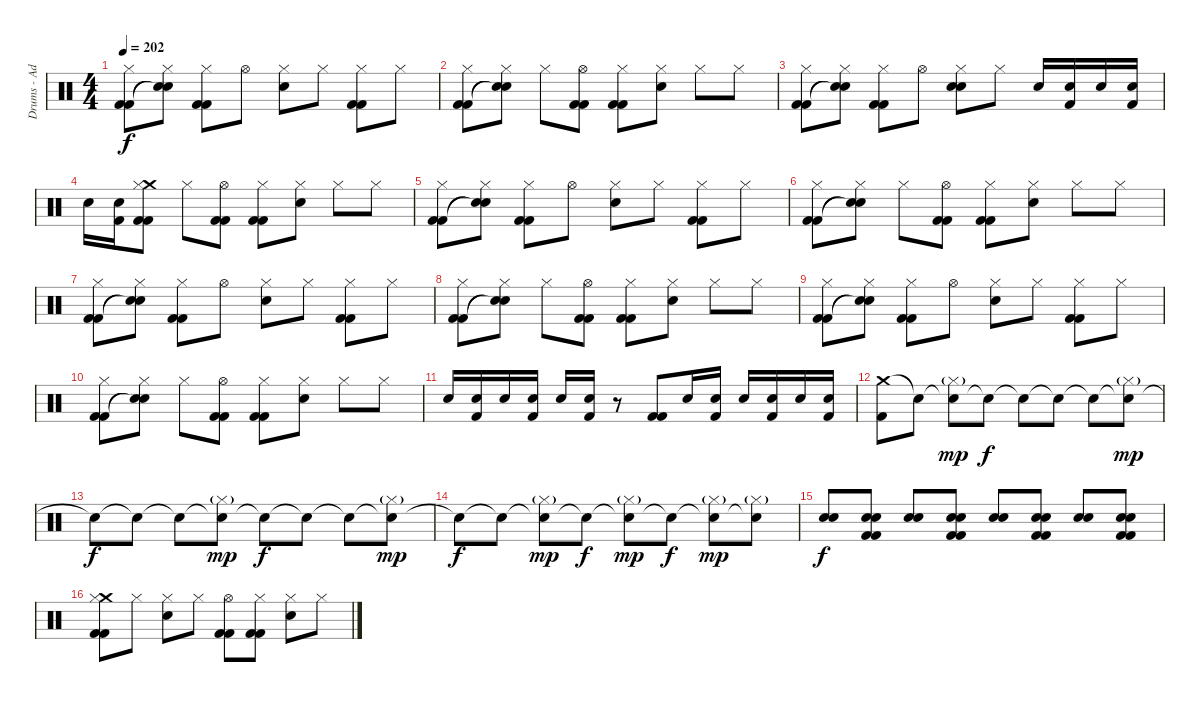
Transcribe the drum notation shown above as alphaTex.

\track ("Drums - Adam" "Drums - Ad") {instrument percussion}
\staff {score}
\articulation defaults
\ts (4 4)
\tempo 202
\clef neutral
\ks c
("Hi-Hat (closed)" "Kick (hit) 2" "Kick (hit) 2").8{dy f} ("Hi-Hat (closed)" "Snare (hit)"{t} "Snare (hit)"{t}).8 ("Hi-Hat (closed)" "Kick (hit) 2" "Kick (hit) 2").8 "Hi-Hat (open)".8 ("Hi-Hat (closed)" "Electric Snare (hit)").8 "Hi-Hat (closed)".8 ("Hi-Hat (closed)" "Kick (hit) 2" "Kick (hit) 2").8 "Hi-Hat (closed)".8 |
("Hi-Hat (closed)" "Kick (hit) 2" "Kick (hit) 2").8 ("Hi-Hat (closed)" "Snare (hit)"{t} "Snare (hit)"{t}).8 "Hi-Hat (closed)".8 ("Hi-Hat (open)" "Kick (hit) 2" "Kick (hit) 2").8 ("Hi-Hat (closed)" "Kick (hit) 2" "Kick (hit) 2").8 ("Hi-Hat (closed)" "Electric Snare (hit)").8 "Hi-Hat (closed)".8 "Hi-Hat (closed)".8 |
("Hi-Hat (closed)" "Kick (hit) 2" "Kick (hit) 2").8 ("Hi-Hat (closed)" "Snare (hit)"{t} "Snare (hit)"{t}).8 ("Hi-Hat (closed)" "Kick (hit) 2" "Kick (hit) 2").8 "Hi-Hat (open)".8 ("Hi-Hat (closed)" "Snare (hit) 2" "Electric Snare (hit)").8 "Hi-Hat (closed)".8 "Electric Snare (hit)".16 ("Electric Snare (hit)" "Kick (hit) 2").16 "Electric Snare (hit)".16 ("Electric Snare (hit)" "Kick (hit) 2").16 |
"Electric Snare (hit)".16 ("Electric Snare (hit)" "Kick (hit) 2").16 ("Crash medium (hit)" "Hi-Hat (closed)" "Kick (hit) 2" "Kick (hit) 2").8 "Hi-Hat (closed)".8 ("Hi-Hat (open)" "Kick (hit) 2" "Kick (hit) 2").8 ("Hi-Hat (closed)" "Kick (hit) 2" "Kick (hit) 2").8 ("Hi-Hat (closed)" "Electric Snare (hit)").8 "Hi-Hat (closed)".8 "Hi-Hat (closed)".8 |
("Hi-Hat (closed)" "Kick (hit) 2" "Kick (hit) 2").8 ("Hi-Hat (closed)" "Snare (hit)"{t} "Snare (hit)"{t}).8 ("Hi-Hat (closed)" "Kick (hit) 2" "Kick (hit) 2").8 "Hi-Hat (open)".8 ("Hi-Hat (closed)" "Electric Snare (hit)").8 "Hi-Hat (closed)".8 ("Hi-Hat (closed)" "Kick (hit) 2" "Kick (hit) 2").8 "Hi-Hat (closed)".8 |
("Hi-Hat (closed)" "Kick (hit) 2" "Kick (hit) 2").8 ("Hi-Hat (closed)" "Snare (hit)"{t} "Snare (hit)"{t}).8 "Hi-Hat (closed)".8 ("Hi-Hat (open)" "Kick (hit) 2" "Kick (hit) 2").8 ("Hi-Hat (closed)" "Kick (hit) 2" "Kick (hit) 2").8 ("Hi-Hat (closed)" "Electric Snare (hit)").8 "Hi-Hat (closed)".8 "Hi-Hat (closed)".8 |
("Hi-Hat (closed)" "Kick (hit) 2" "Kick (hit) 2").8 ("Hi-Hat (closed)" "Snare (hit)"{t} "Snare (hit)"{t}).8 ("Hi-Hat (closed)" "Kick (hit) 2" "Kick (hit) 2").8 "Hi-Hat (open)".8 ("Hi-Hat (closed)" "Electric Snare (hit)").8 "Hi-Hat (closed)".8 ("Hi-Hat (closed)" "Kick (hit) 2" "Kick (hit) 2").8 "Hi-Hat (closed)".8 |
("Hi-Hat (closed)" "Kick (hit) 2" "Kick (hit) 2").8 ("Hi-Hat (closed)" "Snare (hit)"{t} "Snare (hit)"{t}).8 "Hi-Hat (closed)".8 ("Hi-Hat (open)" "Kick (hit) 2" "Kick (hit) 2").8 ("Hi-Hat (closed)" "Kick (hit) 2" "Kick (hit) 2").8 ("Hi-Hat (closed)" "Electric Snare (hit)").8 "Hi-Hat (closed)".8 "Hi-Hat (closed)".8 |
("Hi-Hat (closed)" "Kick (hit) 2" "Kick (hit) 2").8 ("Hi-Hat (closed)" "Snare (hit)"{t} "Snare (hit)"{t}).8 ("Hi-Hat (closed)" "Kick (hit) 2" "Kick (hit) 2").8 "Hi-Hat (open)".8 ("Hi-Hat (closed)" "Electric Snare (hit)").8 "Hi-Hat (closed)".8 ("Hi-Hat (closed)" "Kick (hit) 2" "Kick (hit) 2").8 "Hi-Hat (closed)".8 |
("Hi-Hat (closed)" "Kick (hit) 2" "Kick (hit) 2").8 ("Hi-Hat (closed)" "Snare (hit)"{t} "Snare (hit)"{t}).8 "Hi-Hat (closed)".8 ("Hi-Hat (open)" "Kick (hit) 2" "Kick (hit) 2").8 ("Hi-Hat (closed)" "Kick (hit) 2" "Kick (hit) 2").8 ("Hi-Hat (closed)" "Electric Snare (hit)").8 "Hi-Hat (closed)".8 "Hi-Hat (closed)".8 |
"Electric Snare (hit)".16 ("Electric Snare (hit)" "Kick (hit) 2").16 "Electric Snare (hit)".16 ("Electric Snare (hit)" "Kick (hit) 2").16 "Electric Snare (hit)".16 ("Electric Snare (hit)" "Kick (hit) 2").16 r.8 ("Kick (hit) 2" "Kick (hit) 2").8 "Electric Snare (hit)".16 ("Electric Snare (hit)" "Kick (hit) 2").16 "Electric Snare (hit)".16 ("Electric Snare (hit)" "Kick (hit) 2").16 "Electric Snare (hit)".16 ("Electric Snare (hit)" "Kick (hit) 2").16 |
("Crash medium (hit)" "Kick (hit) 2").8 "Snare (hit)"{t}.8 ("Snare (hit)"{t} "Hi-Hat (closed)"{g}).8{dy mp} "Snare (hit)"{t}.8{dy f} "Snare (hit)"{t}.8 "Snare (hit)"{t}.8 "Snare (hit)"{t}.8 ("Snare (hit)"{t} "Hi-Hat (closed)"{g}).8{dy mp} |
"Snare (hit)"{t}.8{dy f} "Snare (hit)"{t}.8 "Snare (hit)"{t}.8 ("Snare (hit)"{t} "Hi-Hat (closed)"{g}).8{dy mp} "Snare (hit)"{t}.8{dy f} "Snare (hit)"{t}.8 "Snare (hit)"{t}.8 ("Snare (hit)"{t} "Hi-Hat (closed)"{g}).8{dy mp} |
"Snare (hit)"{t}.8{dy f} "Snare (hit)"{t}.8 ("Snare (hit)"{t} "Hi-Hat (closed)"{g}).8{dy mp} "Snare (hit)"{t}.8{dy f} ("Snare (hit)"{t} "Hi-Hat (closed)"{g}).8{dy mp} "Snare (hit)"{t}.8{dy f} ("Snare (hit)"{t} "Hi-Hat (closed)"{g}).8{dy mp} ("Snare (hit)"{t} "Hi-Hat (closed)"{g}).8 |
("Snare (hit) 2" "Electric Snare (hit)").8{dy f} ("Snare (hit) 2" "Electric Snare (hit)" "Kick (hit) 2" "Kick (hit) 2").8 ("Snare (hit) 2" "Electric Snare (hit)").8 ("Snare (hit) 2" "Electric Snare (hit)" "Kick (hit) 2" "Kick (hit) 2").8 ("Snare (hit) 2" "Electric Snare (hit)").8 ("Snare (hit) 2" "Electric Snare (hit)" "Kick (hit) 2" "Kick (hit) 2").8 ("Snare (hit) 2" "Electric Snare (hit)").8 ("Snare (hit) 2" "Electric Snare (hit)" "Kick (hit) 2" "Kick (hit) 2").8 |
("Crash medium (hit)" "Hi-Hat (closed)" "Kick (hit) 2" "Kick (hit) 2").8 "Hi-Hat (closed)".8 ("Hi-Hat (closed)" "Electric Snare (hit)").8 "Hi-Hat (closed)".8 ("Hi-Hat (open)" "Kick (hit) 2" "Kick (hit) 2").8 ("Hi-Hat (closed)" "Kick (hit) 2" "Kick (hit) 2").8 ("Hi-Hat (closed)" "Electric Snare (hit)").8 "Hi-Hat (closed)".8
